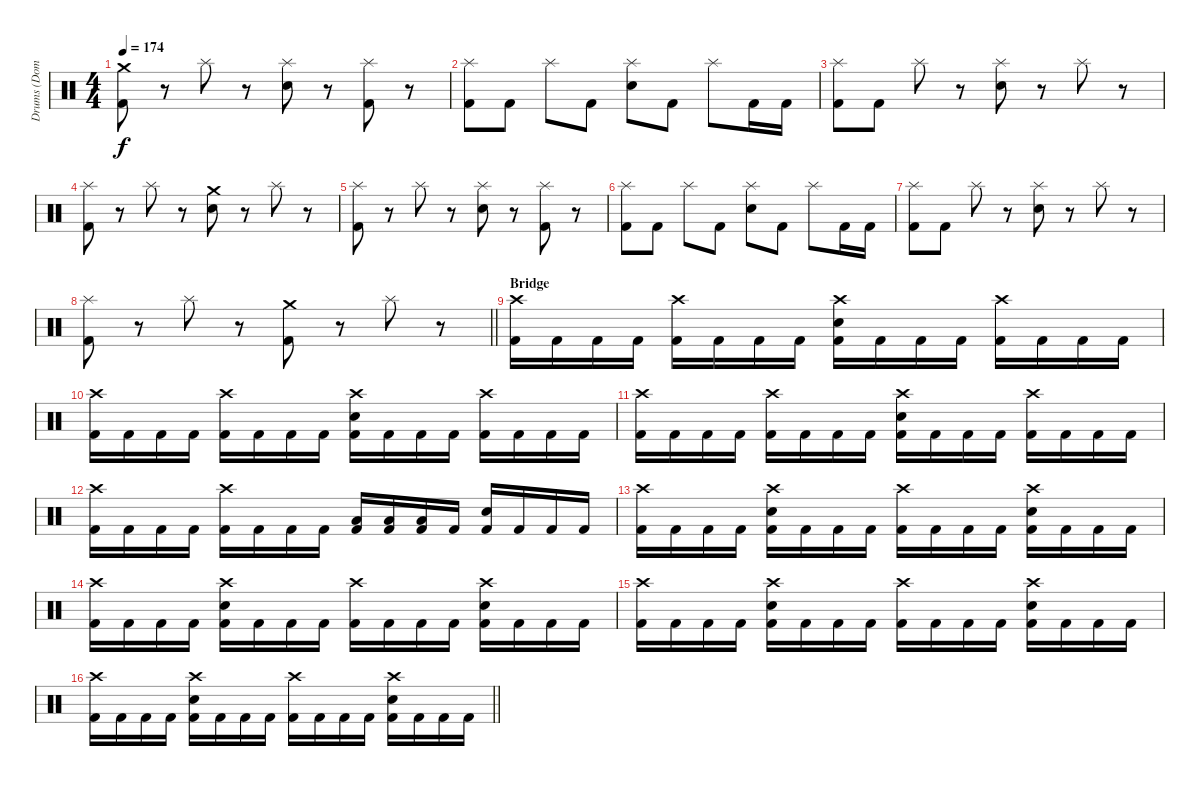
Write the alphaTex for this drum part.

\track ("Drums (Dominik)" "Drums (Dom") {instrument percussion}
\staff {score}
\articulation defaults
\ts (4 4)
\tempo 174
\clef neutral
\ks c
("Crash medium (hit)" "Kick (hit) 2").8{dy f} r.8 "Splash (hit)".8 r.8 ("Splash (hit)" "Electric Snare (hit)").8 r.8 ("Splash (hit)" "Kick (hit) 2").8 r.8 |
("Splash (hit)" "Kick (hit) 2").8 "Kick (hit) 2".8 "Splash (hit)".8 "Kick (hit) 2".8 ("Splash (hit)" "Electric Snare (hit)").8 "Kick (hit) 2".8 "Splash (hit)".8 "Kick (hit) 2".16 "Kick (hit) 2".16 |
("Splash (hit)" "Kick (hit) 2").8 "Kick (hit) 2".8 "Splash (hit)".8 r.8 ("Splash (hit)" "Electric Snare (hit)").8 r.8 "Splash (hit)".8 r.8 |
("Splash (hit)" "Kick (hit) 2").8 r.8 "Splash (hit)".8 r.8 ("Crash medium (hit)" "Electric Snare (hit)").8 r.8 "Splash (hit)".8 r.8 |
("Splash (hit)" "Kick (hit) 2").8 r.8 "Splash (hit)".8 r.8 ("Splash (hit)" "Electric Snare (hit)").8 r.8 ("Splash (hit)" "Kick (hit) 2").8 r.8 |
("Splash (hit)" "Kick (hit) 2").8 "Kick (hit) 2".8 "Splash (hit)".8 "Kick (hit) 2".8 ("Splash (hit)" "Electric Snare (hit)").8 "Kick (hit) 2".8 "Splash (hit)".8 "Kick (hit) 2".16 "Kick (hit) 2".16 |
("Splash (hit)" "Kick (hit) 2").8 "Kick (hit) 2".8 "Splash (hit)".8 r.8 ("Splash (hit)" "Electric Snare (hit)").8 r.8 "Splash (hit)".8 r.8 |
\barLineRight lightlight
("Splash (hit)" "Kick (hit) 2").8 r.8 "Splash (hit)".8 r.8 ("Crash medium (hit)" "Kick (hit) 2").8 r.8 "Splash (hit)".8 r.8 |
\section ("" "Bridge")
("Crash high (hit)" "Kick (hit) 2").16 "Kick (hit) 2".16 "Kick (hit) 2".16 "Kick (hit) 2".16 ("Crash high (hit)" "Kick (hit) 2").16 "Kick (hit) 2".16 "Kick (hit) 2".16 "Kick (hit) 2".16 ("Crash high (hit)" "Electric Snare (hit)" "Kick (hit) 2").16 "Kick (hit) 2".16 "Kick (hit) 2".16 "Kick (hit) 2".16 ("Crash high (hit)" "Kick (hit) 2").16 "Kick (hit) 2".16 "Kick (hit) 2".16 "Kick (hit) 2".16 |
("Crash high (hit)" "Kick (hit) 2").16 "Kick (hit) 2".16 "Kick (hit) 2".16 "Kick (hit) 2".16 ("Crash high (hit)" "Kick (hit) 2").16 "Kick (hit) 2".16 "Kick (hit) 2".16 "Kick (hit) 2".16 ("Crash high (hit)" "Electric Snare (hit)" "Kick (hit) 2").16 "Kick (hit) 2".16 "Kick (hit) 2".16 "Kick (hit) 2".16 ("Crash high (hit)" "Kick (hit) 2").16 "Kick (hit) 2".16 "Kick (hit) 2".16 "Kick (hit) 2".16 |
("Crash high (hit)" "Kick (hit) 2").16 "Kick (hit) 2".16 "Kick (hit) 2".16 "Kick (hit) 2".16 ("Crash high (hit)" "Kick (hit) 2").16 "Kick (hit) 2".16 "Kick (hit) 2".16 "Kick (hit) 2".16 ("Crash high (hit)" "Electric Snare (hit)" "Kick (hit) 2").16 "Kick (hit) 2".16 "Kick (hit) 2".16 "Kick (hit) 2".16 ("Crash high (hit)" "Kick (hit) 2").16 "Kick (hit) 2".16 "Kick (hit) 2".16 "Kick (hit) 2".16 |
("Crash high (hit)" "Kick (hit) 2").16 "Kick (hit) 2".16 "Kick (hit) 2".16 "Kick (hit) 2".16 ("Crash high (hit)" "Kick (hit) 2").16 "Kick (hit) 2".16 "Kick (hit) 2".16 "Kick (hit) 2".16 ("Low Tom (hit)" "Kick (hit) 2").16 ("Low Tom (hit)" "Kick (hit) 2").16 ("Low Tom (hit)" "Kick (hit) 2").16 "Kick (hit) 2".16 ("Electric Snare (hit)" "Kick (hit) 2").16 "Kick (hit) 2".16 "Kick (hit) 2".16 "Kick (hit) 2".16 |
("Crash high (hit)" "Kick (hit) 2").16 "Kick (hit) 2".16 "Kick (hit) 2".16 "Kick (hit) 2".16 ("Crash high (hit)" "Electric Snare (hit)" "Kick (hit) 2").16 "Kick (hit) 2".16 "Kick (hit) 2".16 "Kick (hit) 2".16 ("Crash high (hit)" "Kick (hit) 2").16 "Kick (hit) 2".16 "Kick (hit) 2".16 "Kick (hit) 2".16 ("Crash high (hit)" "Electric Snare (hit)" "Kick (hit) 2").16 "Kick (hit) 2".16 "Kick (hit) 2".16 "Kick (hit) 2".16 |
("Crash high (hit)" "Kick (hit) 2").16 "Kick (hit) 2".16 "Kick (hit) 2".16 "Kick (hit) 2".16 ("Crash high (hit)" "Electric Snare (hit)" "Kick (hit) 2").16 "Kick (hit) 2".16 "Kick (hit) 2".16 "Kick (hit) 2".16 ("Crash high (hit)" "Kick (hit) 2").16 "Kick (hit) 2".16 "Kick (hit) 2".16 "Kick (hit) 2".16 ("Crash high (hit)" "Electric Snare (hit)" "Kick (hit) 2").16 "Kick (hit) 2".16 "Kick (hit) 2".16 "Kick (hit) 2".16 |
("Crash high (hit)" "Kick (hit) 2").16 "Kick (hit) 2".16 "Kick (hit) 2".16 "Kick (hit) 2".16 ("Crash high (hit)" "Electric Snare (hit)" "Kick (hit) 2").16 "Kick (hit) 2".16 "Kick (hit) 2".16 "Kick (hit) 2".16 ("Crash high (hit)" "Kick (hit) 2").16 "Kick (hit) 2".16 "Kick (hit) 2".16 "Kick (hit) 2".16 ("Crash high (hit)" "Electric Snare (hit)" "Kick (hit) 2").16 "Kick (hit) 2".16 "Kick (hit) 2".16 "Kick (hit) 2".16 |
\barLineRight lightlight
("Crash high (hit)" "Kick (hit) 2").16 "Kick (hit) 2".16 "Kick (hit) 2".16 "Kick (hit) 2".16 ("Crash high (hit)" "Electric Snare (hit)" "Kick (hit) 2").16 "Kick (hit) 2".16 "Kick (hit) 2".16 "Kick (hit) 2".16 ("Crash high (hit)" "Kick (hit) 2").16 "Kick (hit) 2".16 "Kick (hit) 2".16 "Kick (hit) 2".16 ("Crash high (hit)" "Electric Snare (hit)" "Kick (hit) 2").16 "Kick (hit) 2".16 "Kick (hit) 2".16 "Kick (hit) 2".16
